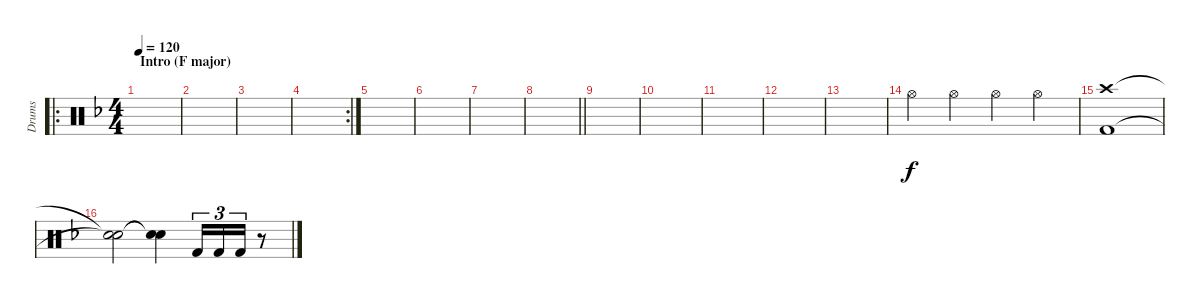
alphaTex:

\track ("Drums" "Drums") {instrument percussion}
\staff {score}
\articulation defaults
\ro
\ts (4 4)
\section ("" "Intro (F major)")
\tempo 120
\clef neutral
\ks f
|
|
|
\rc 2
|
|
|
|
\barLineRight lightlight
|
|
|
|
|
|
"Hi-Hat (open)".4 "Hi-Hat (open)".4 "Hi-Hat (open)".4 "Hi-Hat (open)".4 |
("Crash high (hit)" "Kick (hit) 2").1 |
("Snare (hit)"{t} "Snare (hit)"{t}).2 ("Snare (hit)"{t} "Snare (hit)"{t}).4 "Kick (hit) 2".16{tu (3 2)} "Kick (hit) 2".16{tu (3 2)} "Kick (hit) 2".16{tu (3 2)} r.8
